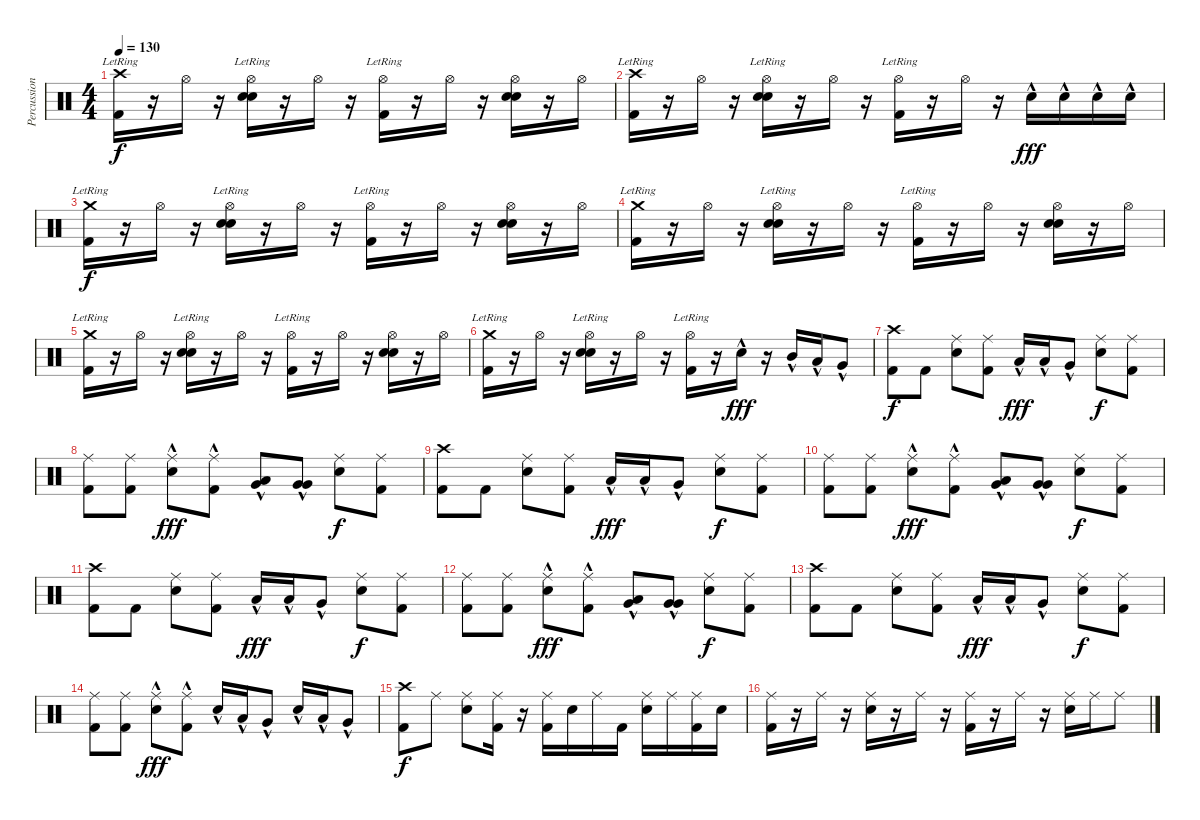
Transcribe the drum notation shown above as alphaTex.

\track ("Percussion" "Percussion") {instrument percussion}
\staff {score}
\articulation defaults
\ts (4 4)
\tempo 130
\clef neutral
\ks c
("Crash high (hit)"{lr} "Kick (hit) 2").16{dy f} r.16 "Hi-Hat (open)".16 r.16 ("Hi-Hat (open)"{lr} "Snare (hit) 2" "Electric Snare (hit)").16 r.16 "Hi-Hat (open)".16 r.16 ("Hi-Hat (open)"{lr} "Kick (hit) 2").16 r.16 "Hi-Hat (open)".16 r.16 ("Hi-Hat (open)" "Snare (hit) 2" "Electric Snare (hit)").16 r.16 "Hi-Hat (open)".16 |
("Crash high (hit)"{lr} "Kick (hit) 2").16 r.16 "Hi-Hat (open)".16 r.16 ("Hi-Hat (open)"{lr} "Snare (hit) 2" "Electric Snare (hit)").16 r.16 "Hi-Hat (open)".16 r.16 ("Hi-Hat (open)"{lr} "Kick (hit) 2").16 r.16 "Hi-Hat (open)".16 r.16 "Snare (hit) 2"{hac}.16{dy fff} "Snare (hit) 2"{hac}.16 "Snare (hit) 2"{hac}.16 "Snare (hit) 2"{hac}.16 |
("Crash medium (hit)"{lr} "Kick (hit) 2").16{dy f} r.16 "Hi-Hat (open)".16 r.16 ("Hi-Hat (open)"{lr} "Snare (hit) 2" "Electric Snare (hit)").16 r.16 "Hi-Hat (open)".16 r.16 ("Hi-Hat (open)"{lr} "Kick (hit) 2").16 r.16 "Hi-Hat (open)".16 r.16 ("Hi-Hat (open)" "Snare (hit) 2" "Electric Snare (hit)").16 r.16 "Hi-Hat (open)".16 |
("Crash medium (hit)"{lr} "Kick (hit) 2").16 r.16 "Hi-Hat (open)".16 r.16 ("Hi-Hat (open)"{lr} "Snare (hit) 2" "Electric Snare (hit)").16 r.16 "Hi-Hat (open)".16 r.16 ("Hi-Hat (open)"{lr} "Kick (hit) 2").16 r.16 "Hi-Hat (open)".16 r.16 ("Hi-Hat (open)" "Snare (hit) 2" "Electric Snare (hit)").16 r.16 "Hi-Hat (open)".16 |
("Crash medium (hit)"{lr} "Kick (hit) 2").16 r.16 "Hi-Hat (open)".16 r.16 ("Hi-Hat (open)"{lr} "Snare (hit) 2" "Electric Snare (hit)").16 r.16 "Hi-Hat (open)".16 r.16 ("Hi-Hat (open)"{lr} "Kick (hit) 2").16 r.16 "Hi-Hat (open)".16 r.16 ("Hi-Hat (open)" "Snare (hit) 2" "Electric Snare (hit)").16 r.16 "Hi-Hat (open)".16 |
("Crash medium (hit)"{lr} "Kick (hit) 2").16 r.16 "Hi-Hat (open)".16 r.16 ("Hi-Hat (open)"{lr} "Snare (hit) 2" "Electric Snare (hit)").16 r.16 "Hi-Hat (open)".16 r.16 ("Hi-Hat (open)"{lr} "Kick (hit) 2").16 r.16 "Snare (hit) 2"{hac}.16{dy fff} r.16 "Mid Tom (hit)"{hac}.16 "Low Tom (hit)"{hac}.16 "Very Low Tom (hit)"{hac}.8 |
("Crash high (hit)" "Kick (hit) 2").8{dy f} "Kick (hit) 2".8 ("Ride (middle)" "Snare (hit) 2").8 ("Ride (middle)" "Kick (hit) 2").8 "Low Tom (hit)"{hac}.16{dy fff} "Low Tom (hit)"{hac}.16 "Very Low Tom (hit)"{hac}.8 ("Ride (middle)" "Snare (hit) 2").8{dy f} ("Ride (middle)" "Kick (hit) 2").8 |
("Ride (middle)" "Kick (hit) 2").8 ("Ride (middle)" "Kick (hit) 2").8 ("Ride (middle)" "Snare (hit) 2"{hac}).8{dy fff} ("Ride (middle)" "Kick (hit) 2"{hac}).8 ("Very Low Tom (hit)" "Low Tom (hit)"{hac}).8 ("Very Low Tom (hit)" "Very Low Tom (hit)"{hac}).8 ("Ride (middle)" "Snare (hit) 2").8{dy f} ("Ride (middle)" "Kick (hit) 2").8 |
("Crash high (hit)" "Kick (hit) 2").8 "Kick (hit) 2".8 ("Ride (middle)" "Snare (hit) 2").8 ("Ride (middle)" "Kick (hit) 2").8 "Low Tom (hit)"{hac}.16{dy fff} "Low Tom (hit)"{hac}.16 "Very Low Tom (hit)"{hac}.8 ("Ride (middle)" "Snare (hit) 2").8{dy f} ("Ride (middle)" "Kick (hit) 2").8 |
("Ride (middle)" "Kick (hit) 2").8 ("Ride (middle)" "Kick (hit) 2").8 ("Ride (middle)" "Snare (hit) 2"{hac}).8{dy fff} ("Ride (middle)" "Kick (hit) 2"{hac}).8 ("Very Low Tom (hit)" "Low Tom (hit)"{hac}).8 ("Very Low Tom (hit)" "Very Low Tom (hit)"{hac}).8 ("Ride (middle)" "Snare (hit) 2").8{dy f} ("Ride (middle)" "Kick (hit) 2").8 |
("Crash high (hit)" "Kick (hit) 2").8 "Kick (hit) 2".8 ("Ride (middle)" "Snare (hit) 2").8 ("Ride (middle)" "Kick (hit) 2").8 "Low Tom (hit)"{hac}.16{dy fff} "Low Tom (hit)"{hac}.16 "Very Low Tom (hit)"{hac}.8 ("Ride (middle)" "Snare (hit) 2").8{dy f} ("Ride (middle)" "Kick (hit) 2").8 |
("Ride (middle)" "Kick (hit) 2").8 ("Ride (middle)" "Kick (hit) 2").8 ("Ride (middle)" "Snare (hit) 2"{hac}).8{dy fff} ("Ride (middle)" "Kick (hit) 2"{hac}).8 ("Very Low Tom (hit)" "Low Tom (hit)"{hac}).8 ("Very Low Tom (hit)" "Very Low Tom (hit)"{hac}).8 ("Ride (middle)" "Snare (hit) 2").8{dy f} ("Ride (middle)" "Kick (hit) 2").8 |
("Crash high (hit)" "Kick (hit) 2").8 "Kick (hit) 2".8 ("Ride (middle)" "Snare (hit) 2").8 ("Ride (middle)" "Kick (hit) 2").8 "Low Tom (hit)"{hac}.16{dy fff} "Low Tom (hit)"{hac}.16 "Very Low Tom (hit)"{hac}.8 ("Ride (middle)" "Snare (hit) 2").8{dy f} ("Ride (middle)" "Kick (hit) 2").8 |
("Ride (middle)" "Kick (hit) 2").8 ("Ride (middle)" "Kick (hit) 2").8 ("Ride (middle)" "Snare (hit) 2"{hac}).8{dy fff} ("Ride (middle)" "Kick (hit) 2"{hac}).8 "Snare (hit) 2"{hac}.16 "Low Tom (hit)"{hac}.16 "Very Low Tom (hit)"{hac}.8 "Snare (hit) 2"{hac}.16 "Low Tom (hit)"{hac}.16 "Very Low Tom (hit)"{hac}.8 |
("Kick (hit) 2" "Crash high (hit)").8{dy f} "Ride (middle)".8 ("Snare (hit) 2" "Ride (middle)").8 ("Kick (hit) 2" "Ride (middle)").16 r.16 ("Kick (hit) 2" "Ride (middle)").16 "Snare (hit) 2".16 "Ride (middle)".16 "Kick (hit) 2".16 ("Snare (hit) 2" "Ride (middle)").16 "Ride (middle)".16 ("Kick (hit) 2" "Ride (middle)").16 "Snare (hit) 2".16 |
("Kick (hit) 2" "Ride (middle)").16 r.16 "Ride (middle)".16 r.16 ("Snare (hit) 2" "Ride (middle)").16 r.16 "Ride (middle)".16 r.16 ("Kick (hit) 2" "Ride (middle)").16 r.16 "Ride (middle)".16 r.16 ("Snare (hit) 2" "Ride (middle)").16 "Ride (middle)".16 "Ride (middle)".8
